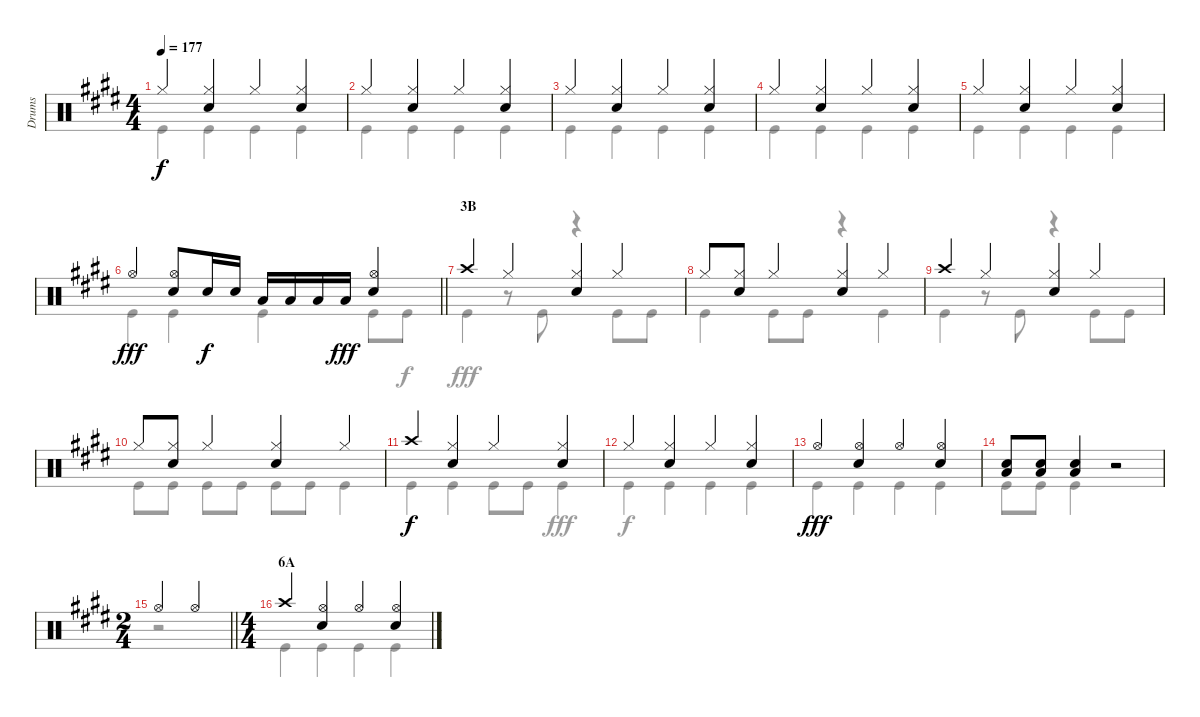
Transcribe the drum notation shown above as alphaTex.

\track ("Drums" "Drums") {instrument percussion}
\staff {score}
\articulation defaults
\voice
\ts (4 4)
\tempo 177
\clef neutral
\ks e "Hi-Hat (closed)".4{dy f}
("Hi-Hat (closed)" "Snare (hit) 2").4 "Hi-Hat (closed)".4 ("Hi-Hat (closed)" "Snare (hit) 2").4 |
"Hi-Hat (closed)".4 ("Hi-Hat (closed)" "Snare (hit) 2").4 "Hi-Hat (closed)".4 ("Hi-Hat (closed)" "Snare (hit) 2").4 |
"Hi-Hat (closed)".4 ("Hi-Hat (closed)" "Snare (hit) 2").4 "Hi-Hat (closed)".4 ("Hi-Hat (closed)" "Snare (hit) 2").4 |
"Hi-Hat (closed)".4 ("Hi-Hat (closed)" "Snare (hit) 2").4 "Hi-Hat (closed)".4 ("Hi-Hat (closed)" "Snare (hit) 2").4 |
"Hi-Hat (closed)".4 ("Hi-Hat (closed)" "Snare (hit) 2").4 "Hi-Hat (closed)".4 ("Hi-Hat (closed)" "Snare (hit) 2").4 |
\barLineRight lightlight "Hi-Hat (open)".4{dy fff}
("Hi-Hat (open)" "Snare (hit) 2").8 "Snare (hit) 2".16{dy f} "Snare (hit) 2".16 "Low Tom (hit)".16 "Low Tom (hit)".16 "Low Tom (hit)".16 "Low Tom (hit)".16{dy fff} ("Hi-Hat (open)" "Snare (hit) 2").4 |
\section ("" "3B")
"Crash high (hit)".4 "Hi-Hat (closed)".4 ("Hi-Hat (closed)" "Snare (hit) 2").4 "Hi-Hat (closed)".4 |
"Hi-Hat (closed)".8 ("Hi-Hat (closed)" "Snare (hit) 2").8 "Hi-Hat (closed)".4 ("Hi-Hat (closed)" "Snare (hit) 2").4 "Hi-Hat (closed)".4 |
"Crash high (hit)".4 "Hi-Hat (closed)".4 ("Hi-Hat (closed)" "Snare (hit) 2").4 "Hi-Hat (closed)".4 |
"Hi-Hat (closed)".8 ("Hi-Hat (closed)" "Snare (hit) 2").8 "Hi-Hat (closed)".4 ("Hi-Hat (closed)" "Snare (hit) 2").4 "Hi-Hat (closed)".4 |
"Crash high (hit)".4{dy f} ("Hi-Hat (closed)" "Snare (hit) 2").4 "Hi-Hat (closed)".4 ("Hi-Hat (closed)" "Snare (hit) 2").4 |
"Hi-Hat (closed)".4 ("Hi-Hat (closed)" "Snare (hit) 2").4 "Hi-Hat (closed)".4 ("Hi-Hat (closed)" "Snare (hit) 2").4 |
"Hi-Hat (open)".4{dy fff} ("Hi-Hat (open)" "Snare (hit) 2").4 "Hi-Hat (open)".4 ("Hi-Hat (open)" "Snare (hit) 2").4 |
("Low Tom (hit)" "Snare (hit) 2").8 ("Low Tom (hit)" "Snare (hit) 2").8 ("Low Tom (hit)" "Snare (hit) 2").4 r.2 |
\ts (2 4)
\barLineRight lightlight "Hi-Hat (open)".4 "Hi-Hat (open)".4
|
\ts (4 4)
\section ("" "6A")
"Crash high (hit)".4 ("Hi-Hat (open)" "Snare (hit) 2").4 "Hi-Hat (open)".4 ("Hi-Hat (open)" "Snare (hit) 2").4
\voice
\clef neutral
\ottava regular
\simile none
\ks e "Kick (hit)".4{dy f} "Kick (hit)".4 "Kick (hit)".4 "Kick (hit)".4
|
"Kick (hit)".4 "Kick (hit)".4 "Kick (hit)".4 "Kick (hit)".4 |
"Kick (hit)".4 "Kick (hit)".4 "Kick (hit)".4 "Kick (hit)".4 |
"Kick (hit)".4 "Kick (hit)".4 "Kick (hit)".4 "Kick (hit)".4 |
"Kick (hit)".4 "Kick (hit)".4 "Kick (hit)".4 "Kick (hit)".4 |
\barLineRight lightlight "Kick (hit)".4{dy fff} "Kick (hit)".4 "Kick (hit)".4 "Kick (hit)".8 "Kick (hit)".8{dy f}
|
"Kick (hit)".4{dy fff} r.8 "Kick (hit)".8 r.4 "Kick (hit)".8 "Kick (hit)".8 |
"Kick (hit)".4 "Kick (hit)".8 "Kick (hit)".8 r.4 "Kick (hit)".4 |
"Kick (hit)".4 r.8 "Kick (hit)".8 r.4 "Kick (hit)".8 "Kick (hit)".8 |
"Kick (hit)".8 "Kick (hit)".8 "Kick (hit)".8 "Kick (hit)".8 "Kick (hit)".8 "Kick (hit)".8 "Kick (hit)".4 |
"Kick (hit)".4{dy f} "Kick (hit)".4 "Kick (hit)".8 "Kick (hit)".8 "Kick (hit)".4{dy fff} |
"Kick (hit)".4{dy f} "Kick (hit)".4 "Kick (hit)".4 "Kick (hit)".4 |
"Kick (hit)".4{dy fff} "Kick (hit)".4 "Kick (hit)".4 "Kick (hit)".4 |
"Kick (hit)".8 "Kick (hit)".8 "Kick (hit)".4 r.2 |
\barLineRight lightlight
r.2 |
"Kick (hit)".4 "Kick (hit)".4 "Kick (hit)".4 "Kick (hit)".4
